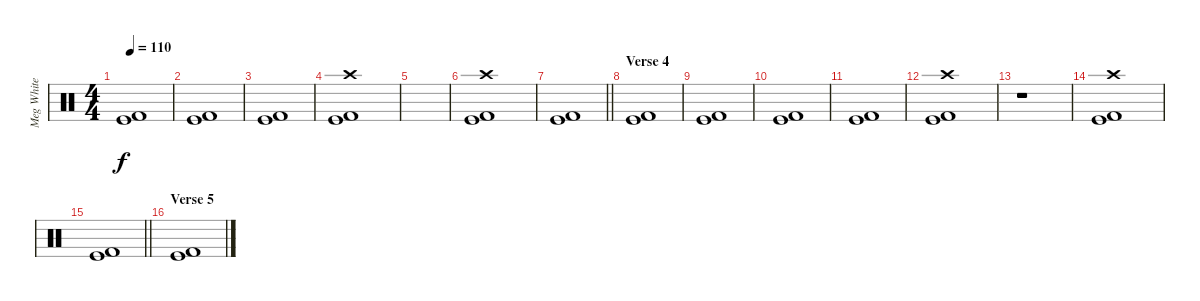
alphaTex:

\track ("Meg White (Drums)" "Meg White ") {instrument percussion}
\staff {score}
\articulation defaults
\ts (4 4)
\tempo 110
\clef neutral
\ks c
("Kick (hit)" "Kick (hit) 2").1{dy f} |
("Kick (hit)" "Kick (hit) 2").1 |
("Kick (hit)" "Kick (hit) 2").1 |
("Kick (hit)" "Kick (hit) 2" "Crash high (hit)").1 |
|
("Kick (hit)" "Kick (hit) 2" "Crash high (hit)").1 |
\barLineRight lightlight
("Kick (hit)" "Kick (hit) 2").1 |
\section ("" "Verse 4")
("Kick (hit)" "Kick (hit) 2").1 |
("Kick (hit)" "Kick (hit) 2").1 |
("Kick (hit) 2" "Kick (hit)").1 |
("Kick (hit) 2" "Kick (hit)").1 |
("Kick (hit) 2" "Kick (hit)" "Crash high (hit)").1 |
r.1 |
("Kick (hit)" "Kick (hit) 2" "Crash high (hit)").1 |
\barLineRight lightlight
("Kick (hit)" "Kick (hit) 2").1 |
\section ("" "Verse 5")
("Kick (hit)" "Kick (hit) 2").1
